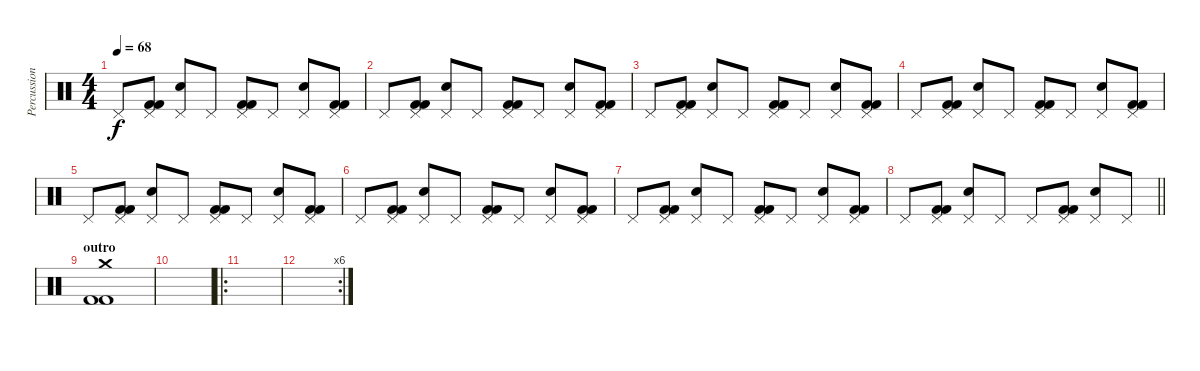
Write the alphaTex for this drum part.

\track ("Percussion" "Percussion") {instrument percussion}
\staff {score}
\articulation defaults
\ts (4 4)
\tempo 68
\clef neutral
\ks c "Pedal Hi-Hat (hit)".8{dy f}
("Kick (hit) 2" "Kick (hit) 2" "Pedal Hi-Hat (hit)").8 ("Electric Snare (hit)" "Pedal Hi-Hat (hit)").8 "Pedal Hi-Hat (hit)".8 ("Kick (hit) 2" "Kick (hit) 2" "Pedal Hi-Hat (hit)").8 "Pedal Hi-Hat (hit)".8 ("Electric Snare (hit)" "Pedal Hi-Hat (hit)").8 ("Kick (hit) 2" "Kick (hit) 2" "Pedal Hi-Hat (hit)").8 |
"Pedal Hi-Hat (hit)".8 ("Kick (hit) 2" "Kick (hit) 2" "Pedal Hi-Hat (hit)").8 ("Electric Snare (hit)" "Pedal Hi-Hat (hit)").8 "Pedal Hi-Hat (hit)".8 ("Kick (hit) 2" "Kick (hit) 2" "Pedal Hi-Hat (hit)").8 "Pedal Hi-Hat (hit)".8 ("Electric Snare (hit)" "Pedal Hi-Hat (hit)").8 ("Kick (hit) 2" "Kick (hit) 2" "Pedal Hi-Hat (hit)").8 |
"Pedal Hi-Hat (hit)".8 ("Kick (hit) 2" "Kick (hit) 2" "Pedal Hi-Hat (hit)").8 ("Electric Snare (hit)" "Pedal Hi-Hat (hit)").8 "Pedal Hi-Hat (hit)".8 ("Kick (hit) 2" "Kick (hit) 2" "Pedal Hi-Hat (hit)").8 "Pedal Hi-Hat (hit)".8 ("Electric Snare (hit)" "Pedal Hi-Hat (hit)").8 ("Kick (hit) 2" "Kick (hit) 2" "Pedal Hi-Hat (hit)").8 |
"Pedal Hi-Hat (hit)".8 ("Kick (hit) 2" "Kick (hit) 2" "Pedal Hi-Hat (hit)").8 ("Electric Snare (hit)" "Pedal Hi-Hat (hit)").8 "Pedal Hi-Hat (hit)".8 ("Kick (hit) 2" "Kick (hit) 2" "Pedal Hi-Hat (hit)").8 "Pedal Hi-Hat (hit)".8 ("Electric Snare (hit)" "Pedal Hi-Hat (hit)").8 ("Kick (hit) 2" "Kick (hit) 2" "Pedal Hi-Hat (hit)").8 |
"Pedal Hi-Hat (hit)".8 ("Kick (hit) 2" "Kick (hit) 2" "Pedal Hi-Hat (hit)").8 ("Electric Snare (hit)" "Pedal Hi-Hat (hit)").8 "Pedal Hi-Hat (hit)".8 ("Kick (hit) 2" "Kick (hit) 2" "Pedal Hi-Hat (hit)").8 "Pedal Hi-Hat (hit)".8 ("Electric Snare (hit)" "Pedal Hi-Hat (hit)").8 ("Kick (hit) 2" "Kick (hit) 2" "Pedal Hi-Hat (hit)").8 |
"Pedal Hi-Hat (hit)".8 ("Kick (hit) 2" "Kick (hit) 2" "Pedal Hi-Hat (hit)").8 ("Electric Snare (hit)" "Pedal Hi-Hat (hit)").8 "Pedal Hi-Hat (hit)".8 ("Kick (hit) 2" "Kick (hit) 2" "Pedal Hi-Hat (hit)").8 "Pedal Hi-Hat (hit)".8 ("Electric Snare (hit)" "Pedal Hi-Hat (hit)").8 ("Kick (hit) 2" "Kick (hit) 2" "Pedal Hi-Hat (hit)").8 |
"Pedal Hi-Hat (hit)".8 ("Kick (hit) 2" "Kick (hit) 2" "Pedal Hi-Hat (hit)").8 ("Electric Snare (hit)" "Pedal Hi-Hat (hit)").8 "Pedal Hi-Hat (hit)".8 ("Kick (hit) 2" "Kick (hit) 2" "Pedal Hi-Hat (hit)").8 "Pedal Hi-Hat (hit)".8 ("Electric Snare (hit)" "Pedal Hi-Hat (hit)").8 ("Kick (hit) 2" "Kick (hit) 2" "Pedal Hi-Hat (hit)").8 |
\barLineRight lightlight "Pedal Hi-Hat (hit)".8
("Kick (hit) 2" "Kick (hit) 2" "Pedal Hi-Hat (hit)").8 ("Electric Snare (hit)" "Pedal Hi-Hat (hit)").8 "Pedal Hi-Hat (hit)".8 "Pedal Hi-Hat (hit)".8 ("Kick (hit) 2" "Kick (hit) 2" "Pedal Hi-Hat (hit)").8 ("Electric Snare (hit)" "Pedal Hi-Hat (hit)").8 "Pedal Hi-Hat (hit)".8 |
\section ("" "outro")
("Kick (hit) 2" "Kick (hit) 2" "Crash medium (hit)").1 |
|
\ro
|
\rc 6
